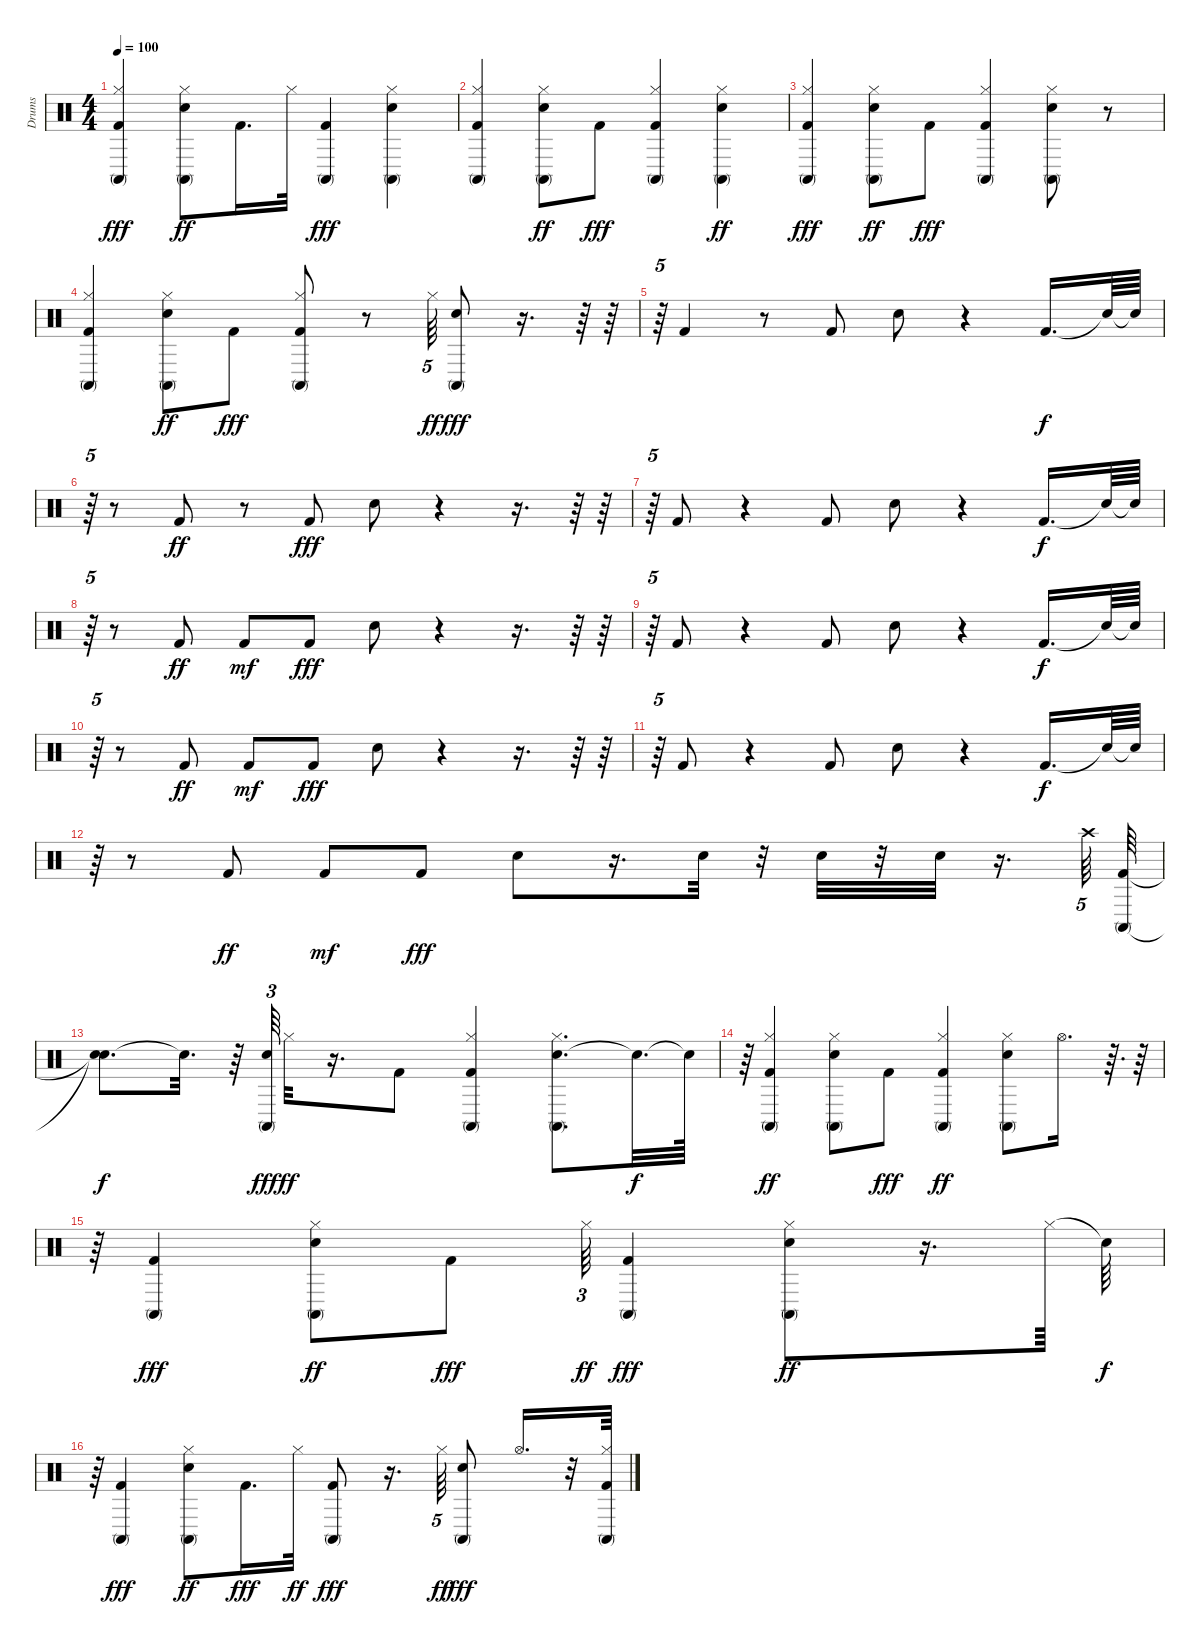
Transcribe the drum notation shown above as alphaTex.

\track ("Drums" "Drums") {instrument percussion}
\staff {score}
\articulation defaults
\ts (4 4)
\tempo 100
\clef neutral
\ks c
("Hi-Hat (closed)" "Kick (hit) 2" "Conga high (mute)").4{dy fff} ("Hi-Hat (closed)" "Snare (hit) 2" "Conga high (mute)").8{dy ff} "Kick (hit) 2".16{d} "Hi-Hat (closed)".32 ("Kick (hit) 2" "Conga high (mute)").4{dy fff} ("Hi-Hat (closed)" "Snare (hit) 2" "Conga high (mute)").4 |
("Hi-Hat (closed)" "Kick (hit) 2" "Conga high (mute)").4 ("Snare (hit) 2" "Conga high (mute)" "Hi-Hat (closed)").8{dy ff} "Kick (hit) 2".8{dy fff} ("Hi-Hat (closed)" "Kick (hit) 2" "Conga high (mute)").4 ("Snare (hit) 2" "Conga high (mute)" "Hi-Hat (closed)").4{dy ff} |
("Hi-Hat (closed)" "Kick (hit) 2" "Conga high (mute)").4{dy fff} ("Snare (hit) 2" "Conga high (mute)" "Hi-Hat (closed)").8{dy ff} "Kick (hit) 2".8{dy fff} ("Hi-Hat (closed)" "Kick (hit) 2" "Conga high (mute)").4 ("Hi-Hat (closed)" "Snare (hit) 2" "Conga high (mute)").8 r.8 |
("Hi-Hat (closed)" "Kick (hit) 2" "Conga high (mute)").4 ("Snare (hit) 2" "Conga high (mute)" "Hi-Hat (closed)").8{dy ff} "Kick (hit) 2".8{dy fff} ("Hi-Hat (closed)" "Kick (hit) 2" "Conga high (mute)").8 r.8 "Hi-Hat (closed)".64{tu (5 4) dy ff} ("Conga high (mute)" "Snare (hit) 2").8{dy fff} r.16{d} r.64 r.64 |
r.64{tu (5 4)} "Kick (hit) 2".4 r.8 "Kick (hit) 2".8 "Snare (hit) 2".8 r.4 "Kick (hit) 2".16{d dy f} "Snare (hit)"{t}.64 "Snare (hit)"{t}.64 |
r.64{tu (5 4)} r.8 "Kick (hit) 2".8{dy ff} r.8 "Kick (hit) 2".8{dy fff} "Snare (hit) 2".8 r.4 r.16{d} r.64 r.64 |
r.64{tu (5 4)} "Kick (hit) 2".8 r.4 "Kick (hit) 2".8 "Snare (hit) 2".8 r.4 "Kick (hit) 2".16{d dy f} "Snare (hit)"{t}.64 "Snare (hit)"{t}.64 |
r.64{tu (5 4)} r.8 "Kick (hit) 2".8{dy ff} "Kick (hit) 2".8{dy mf} "Kick (hit) 2".8{dy fff} "Snare (hit) 2".8 r.4 r.16{d} r.64 r.64 |
r.64{tu (5 4)} "Kick (hit) 2".8 r.4 "Kick (hit) 2".8 "Snare (hit) 2".8 r.4 "Kick (hit) 2".16{d dy f} "Snare (hit)"{t}.64 "Snare (hit)"{t}.64 |
r.64{tu (5 4)} r.8 "Kick (hit) 2".8{dy ff} "Kick (hit) 2".8{dy mf} "Kick (hit) 2".8{dy fff} "Snare (hit) 2".8 r.4 r.16{d} r.64 r.64 |
r.64{tu (5 4)} "Kick (hit) 2".8 r.4 "Kick (hit) 2".8 "Snare (hit) 2".8 r.4 "Kick (hit) 2".16{d dy f} "Snare (hit)"{t}.64 "Snare (hit)"{t}.64 |
r.64{tu (5 4)} r.8 "Kick (hit) 2".8{dy ff} "Kick (hit) 2".8{dy mf} "Kick (hit) 2".8{dy fff} "Snare (hit) 2".8 r.16{d} "Snare (hit) 2".32 r.32 "Snare (hit) 2".32 r.32 "Snare (hit) 2".32 r.16{d} "Crash high (hit)".64{tu (5 4)} ("Conga high (mute)" "Kick (hit) 2").64 |
("Snare (hit)"{t} "Snare (hit)"{t}).8{d dy f} "Snare (hit)"{t}.32{d} r.64 ("Snare (hit) 2" "Conga high (mute)").64{tu (3 2) dy fff} "Hi-Hat (closed)".32{dy ff} r.16{d} "Kick (hit) 2".8 ("Kick (hit) 2" "Conga high (mute)" "Hi-Hat (closed)").4 ("Snare (hit) 2" "Conga high (mute)" "Hi-Hat (closed)").8{d} "Snare (hit)"{t}.32{d dy f} "Snare (hit)"{t}.64 |
r.64 ("Kick (hit) 2" "Conga high (mute)" "Hi-Hat (closed)").4{dy ff} ("Snare (hit) 2" "Conga high (mute)" "Hi-Hat (closed)").8 "Kick (hit) 2".8{dy fff} ("Conga high (mute)" "Kick (hit) 2" "Hi-Hat (closed)").4{dy ff} ("Snare (hit) 2" "Conga high (mute)" "Hi-Hat (closed)").8 "Hi-Hat (open)".16{d} r.64{d} r.64 |
r.64 ("Conga high (mute)" "Kick (hit) 2").4{dy fff} ("Snare (hit) 2" "Conga high (mute)" "Hi-Hat (closed)").8{dy ff} "Kick (hit) 2".8{dy fff} "Hi-Hat (closed)".64{tu (3 2) dy ff} ("Conga high (mute)" "Kick (hit) 2").4{dy fff} ("Snare (hit) 2" "Conga high (mute)" "Hi-Hat (closed)").8{dy ff} r.16{d} "Hi-Hat (closed)".64 "Snare (hit)"{t}.64{dy f} |
r.64 ("Kick (hit) 2" "Conga high (mute)").4{dy fff} ("Snare (hit) 2" "Conga high (mute)" "Hi-Hat (closed)").8{dy ff} "Kick (hit) 2".16{d dy fff} "Hi-Hat (closed)".32{dy ff} ("Kick (hit) 2" "Conga high (mute)").8{dy fff} r.16{d} "Hi-Hat (closed)".64{tu (5 4) dy ff} ("Conga high (mute)" "Snare (hit) 2").8{dy fff} "Hi-Hat (open)".16{d} r.32 ("Hi-Hat (closed)" "Kick (hit) 2" "Conga high (mute)").64
